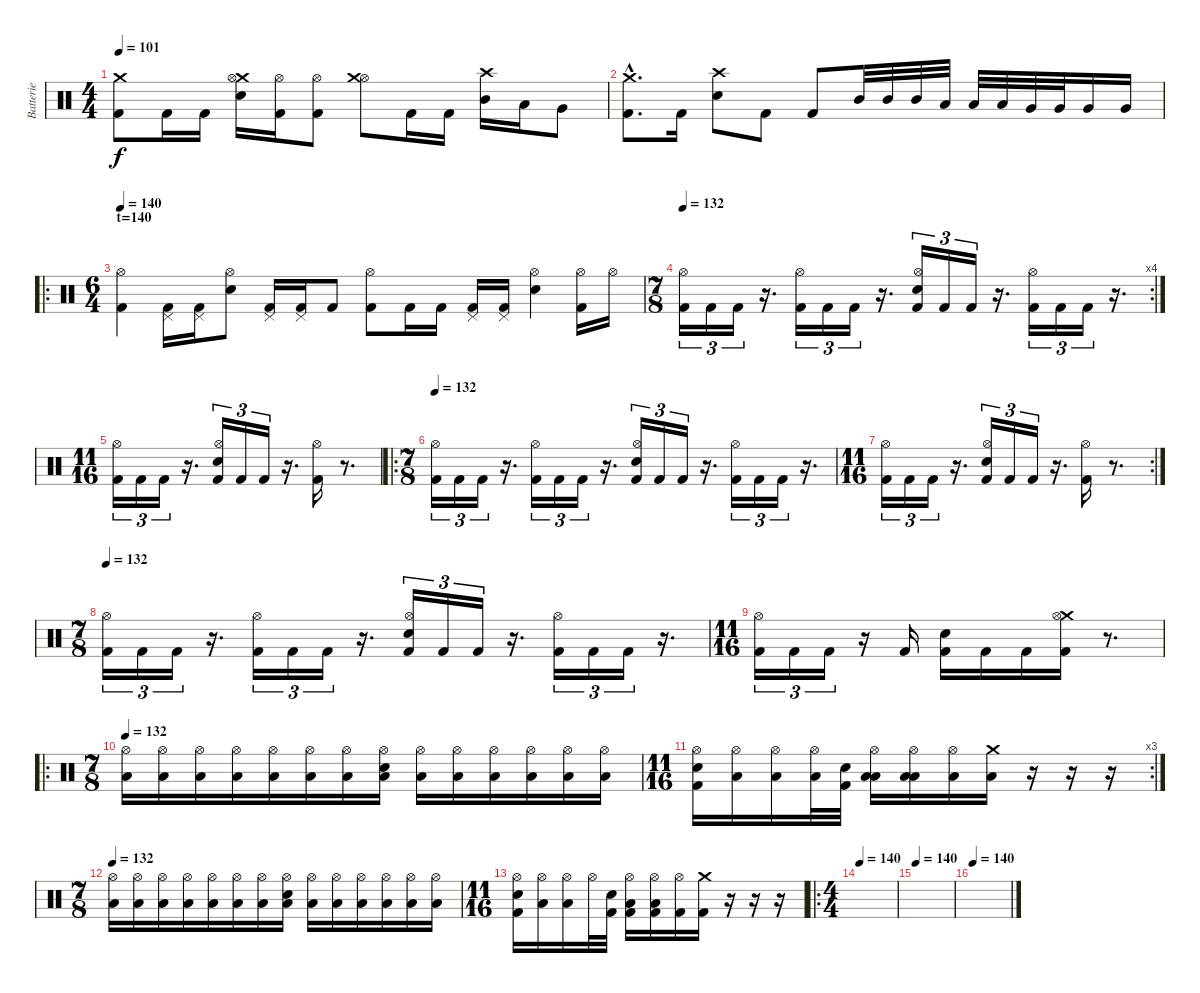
\track ("Batterie" "Batterie") {instrument percussion}
\staff {score}
\articulation defaults
\ts (4 4)
\tempo 101
\clef neutral
\ks c
("Crash medium (hit)" "Kick (hit) 2").8{dy f} "Kick (hit) 2".16 "Kick (hit) 2".16 ("Crash medium (hit)" "Hi-Hat (open)" "Electric Snare (hit)").16 ("Hi-Hat (open)" "Kick (hit) 2").16 ("Hi-Hat (open)" "Kick (hit) 2").8 ("Hi-Hat (open)" "Crash medium (hit)").8 "Kick (hit) 2".16 "Kick (hit) 2".16 ("Crash high (hit)" "Mid Tom (hit)").16 "Low Tom (hit)".16 "Very Low Tom (hit)".8 |
("Crash medium (hit)"{hac} "Kick (hit) 2"{hac}).8{d} "Kick (hit) 2".16 ("Crash high (hit)" "Electric Snare (hit)").8 "Kick (hit) 2".8 "Kick (hit) 2".8 "Mid Tom (hit)".32 "Mid Tom (hit)".32 "Mid Tom (hit)".32 "Low Tom (hit)".32 "Low Tom (hit)".32 "Low Tom (hit)".32 "Very Low Tom (hit)".32 "Very Low Tom (hit)".32 "Very Low Tom (hit)".16 "Very Low Tom (hit)".16 |
\ro
\ts (6 4)
\section ("" "t=140")
\tempo 140
("Hi-Hat (open)" "Kick (hit) 2").4 ("Pedal Hi-Hat (hit)" "Kick (hit) 2").16 ("Pedal Hi-Hat (hit)" "Kick (hit) 2").16 ("Hi-Hat (open)" "Electric Snare (hit)").8 ("Pedal Hi-Hat (hit)" "Kick (hit) 2").16 ("Pedal Hi-Hat (hit)" "Kick (hit) 2").16 "Kick (hit) 2".8 ("Hi-Hat (open)" "Kick (hit) 2").8 "Kick (hit) 2".16 "Kick (hit) 2".16 ("Pedal Hi-Hat (hit)" "Kick (hit) 2").16 ("Pedal Hi-Hat (hit)" "Kick (hit) 2").16 ("Hi-Hat (open)" "Electric Snare (hit)").4 ("Hi-Hat (open)" "Kick (hit) 2").16 "Hi-Hat (open)".16 |
\rc 4
\ts (7 8)
\tempo 132
("Hi-Hat (open)" "Kick (hit) 2").16{tu (3 2)} "Kick (hit) 2".16{tu (3 2)} "Kick (hit) 2".16{tu (3 2)} r.16{d} ("Hi-Hat (open)" "Kick (hit) 2").16{tu (3 2)} "Kick (hit) 2".16{tu (3 2)} "Kick (hit) 2".16{tu (3 2)} r.16{d} ("Hi-Hat (open)" "Electric Snare (hit)" "Kick (hit) 2").16{tu (3 2)} "Kick (hit) 2".16{tu (3 2)} "Kick (hit) 2".16{tu (3 2)} r.16{d} ("Hi-Hat (open)" "Kick (hit) 2").16{tu (3 2)} "Kick (hit) 2".16{tu (3 2)} "Kick (hit) 2".16{tu (3 2)} r.16{d} |
\ts (11 16)
("Hi-Hat (open)" "Kick (hit) 2").16{tu (3 2)} "Kick (hit) 2".16{tu (3 2)} "Kick (hit) 2".16{tu (3 2)} r.16{d} ("Electric Snare (hit)" "Hi-Hat (open)" "Kick (hit) 2").16{tu (3 2)} "Kick (hit) 2".16{tu (3 2)} "Kick (hit) 2".16{tu (3 2)} r.16{d} ("Hi-Hat (open)" "Kick (hit) 2").16 r.8{d} |
\ro
\ts (7 8)
\tempo 132
("Hi-Hat (open)" "Kick (hit) 2").16{tu (3 2)} "Kick (hit) 2".16{tu (3 2)} "Kick (hit) 2".16{tu (3 2)} r.16{d} ("Hi-Hat (open)" "Kick (hit) 2").16{tu (3 2)} "Kick (hit) 2".16{tu (3 2)} "Kick (hit) 2".16{tu (3 2)} r.16{d} ("Hi-Hat (open)" "Electric Snare (hit)" "Kick (hit) 2").16{tu (3 2)} "Kick (hit) 2".16{tu (3 2)} "Kick (hit) 2".16{tu (3 2)} r.16{d} ("Hi-Hat (open)" "Kick (hit) 2").16{tu (3 2)} "Kick (hit) 2".16{tu (3 2)} "Kick (hit) 2".16{tu (3 2)} r.16{d} |
\rc 2
\ts (11 16)
("Hi-Hat (open)" "Kick (hit) 2").16{tu (3 2)} "Kick (hit) 2".16{tu (3 2)} "Kick (hit) 2".16{tu (3 2)} r.16{d} ("Electric Snare (hit)" "Hi-Hat (open)" "Kick (hit) 2").16{tu (3 2)} "Kick (hit) 2".16{tu (3 2)} "Kick (hit) 2".16{tu (3 2)} r.16{d} ("Hi-Hat (open)" "Kick (hit) 2").16 r.8{d} |
\ts (7 8)
\tempo 132
("Hi-Hat (open)" "Kick (hit) 2").16{tu (3 2)} "Kick (hit) 2".16{tu (3 2)} "Kick (hit) 2".16{tu (3 2)} r.16{d} ("Hi-Hat (open)" "Kick (hit) 2").16{tu (3 2)} "Kick (hit) 2".16{tu (3 2)} "Kick (hit) 2".16{tu (3 2)} r.16{d} ("Hi-Hat (open)" "Electric Snare (hit)" "Kick (hit) 2").16{tu (3 2)} "Kick (hit) 2".16{tu (3 2)} "Kick (hit) 2".16{tu (3 2)} r.16{d} ("Hi-Hat (open)" "Kick (hit) 2").16{tu (3 2)} "Kick (hit) 2".16{tu (3 2)} "Kick (hit) 2".16{tu (3 2)} r.16{d} |
\ts (11 16)
("Hi-Hat (open)" "Kick (hit) 2").16{tu (3 2)} "Kick (hit) 2".16{tu (3 2)} "Kick (hit) 2".16{tu (3 2)} r.16 "Kick (hit) 2".16 ("Electric Snare (hit)" "Kick (hit) 2").16 "Kick (hit) 2".16 "Kick (hit) 2".16 ("Crash medium (hit)" "Hi-Hat (open)" "Kick (hit) 2").16 r.8{d} |
\ro
\ts (7 8)
\tempo 132
("Hi-Hat (open)" "Low Floor Tom (hit)").16 ("Hi-Hat (open)" "Low Floor Tom (hit)").16 ("Hi-Hat (open)" "Low Floor Tom (hit)").16 ("Hi-Hat (open)" "Low Floor Tom (hit)").16 ("Hi-Hat (open)" "Low Floor Tom (hit)").16 ("Hi-Hat (open)" "Low Floor Tom (hit)").16 ("Hi-Hat (open)" "Low Floor Tom (hit)").16 ("Hi-Hat (open)" "Electric Snare (hit)" "Low Floor Tom (hit)").16 ("Hi-Hat (open)" "Low Floor Tom (hit)").16 ("Hi-Hat (open)" "Low Floor Tom (hit)").16 ("Hi-Hat (open)" "Low Floor Tom (hit)").16 ("Hi-Hat (open)" "Low Floor Tom (hit)").16 ("Hi-Hat (open)" "Low Floor Tom (hit)").16 ("Hi-Hat (open)" "Low Floor Tom (hit)").16 |
\rc 3
\ts (11 16)
("Hi-Hat (open)" "Electric Snare (hit)" "Kick (hit) 2").16 ("Hi-Hat (open)" "Low Floor Tom (hit)").16 ("Hi-Hat (open)" "Low Floor Tom (hit)").16 ("Hi-Hat (open)" "Low Floor Tom (hit)").32 ("Kick (hit) 2" "Electric Snare (hit)").32 ("Hi-Hat (open)" "Low Tom (hit)" "Low Floor Tom (hit)").16 ("Hi-Hat (open)" "Low Tom (hit)" "Low Floor Tom (hit)").16 ("Hi-Hat (open)" "Low Floor Tom (hit)").16 ("Crash medium (hit)" "Low Floor Tom (hit)").16 r.16 r.16 r.16 |
\ts (7 8)
\tempo 132
("Hi-Hat (open)" "Low Floor Tom (hit)").16 ("Hi-Hat (open)" "Low Floor Tom (hit)").16 ("Hi-Hat (open)" "Low Floor Tom (hit)").16 ("Hi-Hat (open)" "Low Floor Tom (hit)").16 ("Hi-Hat (open)" "Low Floor Tom (hit)").16 ("Hi-Hat (open)" "Low Floor Tom (hit)").16 ("Hi-Hat (open)" "Low Floor Tom (hit)").16 ("Hi-Hat (open)" "Electric Snare (hit)" "Low Floor Tom (hit)").16 ("Hi-Hat (open)" "Low Floor Tom (hit)").16 ("Hi-Hat (open)" "Low Floor Tom (hit)").16 ("Hi-Hat (open)" "Low Floor Tom (hit)").16 ("Hi-Hat (open)" "Low Floor Tom (hit)").16 ("Hi-Hat (open)" "Low Floor Tom (hit)").16 ("Hi-Hat (open)" "Low Floor Tom (hit)").16 |
\ts (11 16)
("Hi-Hat (open)" "Electric Snare (hit)" "Kick (hit) 2").16 ("Hi-Hat (open)" "Low Floor Tom (hit)").16 ("Hi-Hat (open)" "Low Floor Tom (hit)").16 "Hi-Hat (open)".32 ("Kick (hit) 2" "Electric Snare (hit)").32 ("Hi-Hat (open)" "Low Tom (hit)" "Kick (hit) 2").16 ("Hi-Hat (open)" "Low Tom (hit)" "Kick (hit) 2").16 ("Hi-Hat (open)" "Kick (hit) 2").16 ("Crash medium (hit)" "Kick (hit) 2").16 r.16 r.16 r.16 |
\ro
\ts (4 4)
\tempo 140
|
\tempo 140
|
\tempo 140
